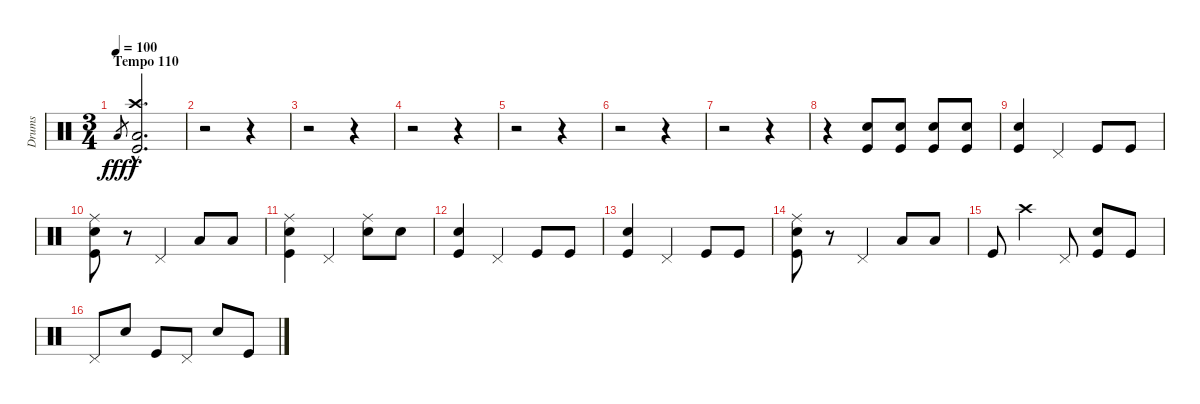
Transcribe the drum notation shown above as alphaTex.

\track ("Drums" "Drums") {instrument percussion}
\staff {score}
\articulation defaults
\ts (3 4)
\section ("" "Tempo 110")
\tempo 100
\clef neutral
\ks c "Low Tom (hit)".8{gr dy fff}
("Crash high (hit)"{hac} "Low Tom (hit)"{hac} "Kick (hit)"{hac}).2{d dy f} |
r.2 r.4 |
r.2 r.4 |
r.2 r.4 |
r.2 r.4 |
r.2 r.4 |
r.2 r.4 |
r.4 ("Snare (hit) 2" "Kick (hit)").8 ("Snare (hit) 2" "Kick (hit)").8 ("Snare (hit) 2" "Kick (hit)").8 ("Snare (hit) 2" "Kick (hit)").8 |
("Snare (hit) 2" "Kick (hit)").4 "Pedal Hi-Hat (hit)".4 "Kick (hit)".8 "Kick (hit)".8 |
("Ride (middle)" "Snare (hit) 2" "Kick (hit)").8 r.8 "Pedal Hi-Hat (hit)".4 "Low Tom (hit)".8 "Low Tom (hit)".8 |
("Ride (middle)" "Snare (hit) 2" "Kick (hit)").4 "Pedal Hi-Hat (hit)".4 ("Ride (middle)" "Snare (hit) 2").8 "Snare (hit) 2".8 |
("Snare (hit) 2" "Kick (hit)").4 "Pedal Hi-Hat (hit)".4 "Kick (hit)".8 "Kick (hit)".8 |
("Snare (hit) 2" "Kick (hit)").4 "Pedal Hi-Hat (hit)".4 "Kick (hit)".8 "Kick (hit)".8 |
("Ride (middle)" "Snare (hit) 2" "Kick (hit)").8 r.8 "Pedal Hi-Hat (hit)".4 "Low Tom (hit)".8 "Low Tom (hit)".8 |
"Kick (hit)".8 "Crash high (hit)".4 "Pedal Hi-Hat (hit)".8 ("Snare (hit) 2" "Kick (hit)").8 "Kick (hit)".8 |
"Pedal Hi-Hat (hit)".8 "Snare (hit) 2".8 "Kick (hit)".8 "Pedal Hi-Hat (hit)".8 "Snare (hit) 2".8 "Kick (hit)".8
